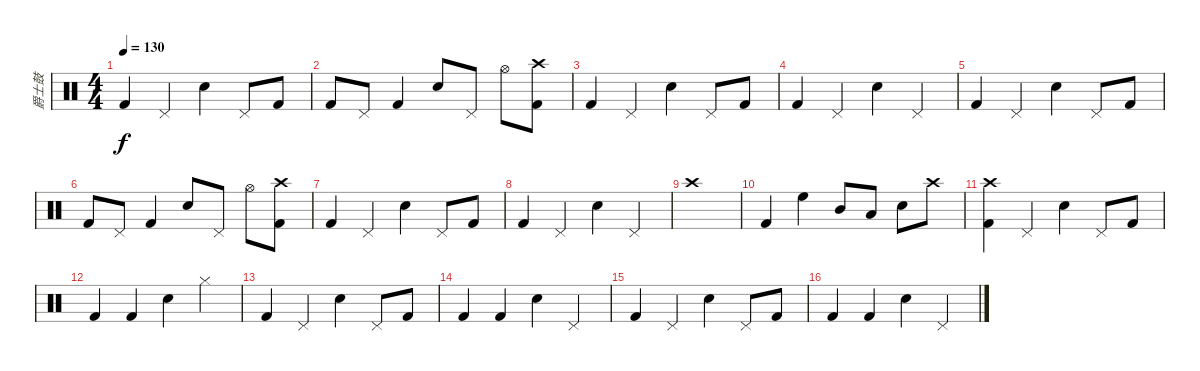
\track ("爵士鼓" "爵士鼓") {instrument percussion}
\staff {score}
\articulation defaults
\ts (4 4)
\tempo 130
\clef neutral
\ks c "Kick (hit) 2".4{dy f} "Pedal Hi-Hat (hit)".4 "Snare (hit) 2".4 "Pedal Hi-Hat (hit)".8 "Kick (hit) 2".8
|
"Kick (hit) 2".8 "Pedal Hi-Hat (hit)".8 "Kick (hit) 2".4 "Snare (hit) 2".8 "Pedal Hi-Hat (hit)".8 "Hi-Hat (open)".8 ("Kick (hit) 2" "Crash high (hit)").8 |
"Kick (hit) 2".4 "Pedal Hi-Hat (hit)".4 "Snare (hit) 2".4 "Pedal Hi-Hat (hit)".8 "Kick (hit) 2".8 |
"Kick (hit) 2".4 "Pedal Hi-Hat (hit)".4 "Snare (hit) 2".4 "Pedal Hi-Hat (hit)".4 |
"Kick (hit) 2".4 "Pedal Hi-Hat (hit)".4 "Snare (hit) 2".4 "Pedal Hi-Hat (hit)".8 "Kick (hit) 2".8 |
"Kick (hit) 2".8 "Pedal Hi-Hat (hit)".8 "Kick (hit) 2".4 "Snare (hit) 2".8 "Pedal Hi-Hat (hit)".8 "Hi-Hat (open)".8 ("Kick (hit) 2" "Crash high (hit)").8 |
"Kick (hit) 2".4 "Pedal Hi-Hat (hit)".4 "Snare (hit) 2".4 "Pedal Hi-Hat (hit)".8 "Kick (hit) 2".8 |
"Kick (hit) 2".4 "Pedal Hi-Hat (hit)".4 "Snare (hit) 2".4 "Pedal Hi-Hat (hit)".4 |
"Crash high (hit)".1 |
"Kick (hit) 2".4 "High Floor Tom (hit)".4 "Mid Tom (hit)".8 "Low Tom (hit)".8 "Snare (hit) 2".8 "Crash high (hit)".8 |
("Crash high (hit)" "Kick (hit) 2").4 "Pedal Hi-Hat (hit)".4 "Snare (hit) 2".4 "Pedal Hi-Hat (hit)".8 "Kick (hit) 2".8 |
"Kick (hit) 2".4 "Kick (hit) 2".4 "Snare (hit) 2".4 "Hi-Hat (closed)".4 |
"Kick (hit) 2".4 "Pedal Hi-Hat (hit)".4 "Snare (hit) 2".4 "Pedal Hi-Hat (hit)".8 "Kick (hit) 2".8 |
"Kick (hit) 2".4 "Kick (hit) 2".4 "Snare (hit) 2".4 "Pedal Hi-Hat (hit)".4 |
"Kick (hit) 2".4 "Pedal Hi-Hat (hit)".4 "Snare (hit) 2".4 "Pedal Hi-Hat (hit)".8 "Kick (hit) 2".8 |
"Kick (hit) 2".4 "Kick (hit) 2".4 "Snare (hit) 2".4 "Pedal Hi-Hat (hit)".4
